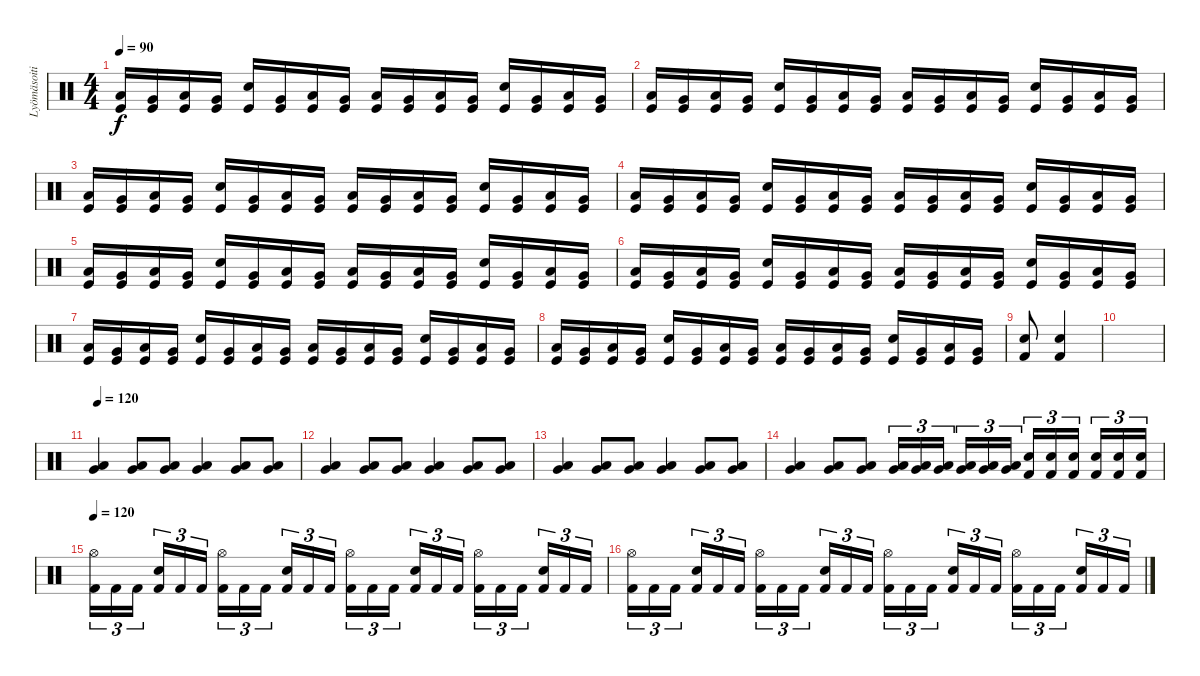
\track ("Lyömäsoitin" "Lyömäsoiti") {instrument percussion}
\staff {score}
\articulation defaults
\ts (4 4)
\tempo 90
\clef neutral
\ks c
("Low Tom (hit)" "Kick (hit)").16{dy f} ("Very Low Tom (hit)" "Kick (hit)").16 ("Low Tom (hit)" "Kick (hit)").16 ("Very Low Tom (hit)" "Kick (hit)").16 ("Electric Snare (hit)" "Kick (hit)").16 ("Very Low Tom (hit)" "Kick (hit)").16 ("Low Tom (hit)" "Kick (hit)").16 ("Very Low Tom (hit)" "Kick (hit)").16 ("Low Tom (hit)" "Kick (hit)").16 ("Very Low Tom (hit)" "Kick (hit)").16 ("Low Tom (hit)" "Kick (hit)").16 ("Very Low Tom (hit)" "Kick (hit)").16 ("Electric Snare (hit)" "Kick (hit)").16 ("Very Low Tom (hit)" "Kick (hit)").16 ("Low Tom (hit)" "Kick (hit)").16 ("Very Low Tom (hit)" "Kick (hit)").16 |
("Low Tom (hit)" "Kick (hit)").16 ("Very Low Tom (hit)" "Kick (hit)").16 ("Low Tom (hit)" "Kick (hit)").16 ("Very Low Tom (hit)" "Kick (hit)").16 ("Electric Snare (hit)" "Kick (hit)").16 ("Very Low Tom (hit)" "Kick (hit)").16 ("Low Tom (hit)" "Kick (hit)").16 ("Very Low Tom (hit)" "Kick (hit)").16 ("Low Tom (hit)" "Kick (hit)").16 ("Very Low Tom (hit)" "Kick (hit)").16 ("Low Tom (hit)" "Kick (hit)").16 ("Very Low Tom (hit)" "Kick (hit)").16 ("Electric Snare (hit)" "Kick (hit)").16 ("Very Low Tom (hit)" "Kick (hit)").16 ("Low Tom (hit)" "Kick (hit)").16 ("Very Low Tom (hit)" "Kick (hit)").16 |
("Low Tom (hit)" "Kick (hit)").16 ("Very Low Tom (hit)" "Kick (hit)").16 ("Low Tom (hit)" "Kick (hit)").16 ("Very Low Tom (hit)" "Kick (hit)").16 ("Electric Snare (hit)" "Kick (hit)").16 ("Very Low Tom (hit)" "Kick (hit)").16 ("Low Tom (hit)" "Kick (hit)").16 ("Very Low Tom (hit)" "Kick (hit)").16 ("Low Tom (hit)" "Kick (hit)").16 ("Very Low Tom (hit)" "Kick (hit)").16 ("Low Tom (hit)" "Kick (hit)").16 ("Very Low Tom (hit)" "Kick (hit)").16 ("Electric Snare (hit)" "Kick (hit)").16 ("Very Low Tom (hit)" "Kick (hit)").16 ("Low Tom (hit)" "Kick (hit)").16 ("Very Low Tom (hit)" "Kick (hit)").16 |
("Low Tom (hit)" "Kick (hit)").16 ("Very Low Tom (hit)" "Kick (hit)").16 ("Low Tom (hit)" "Kick (hit)").16 ("Very Low Tom (hit)" "Kick (hit)").16 ("Electric Snare (hit)" "Kick (hit)").16 ("Very Low Tom (hit)" "Kick (hit)").16 ("Low Tom (hit)" "Kick (hit)").16 ("Very Low Tom (hit)" "Kick (hit)").16 ("Low Tom (hit)" "Kick (hit)").16 ("Very Low Tom (hit)" "Kick (hit)").16 ("Low Tom (hit)" "Kick (hit)").16 ("Very Low Tom (hit)" "Kick (hit)").16 ("Electric Snare (hit)" "Kick (hit)").16 ("Very Low Tom (hit)" "Kick (hit)").16 ("Low Tom (hit)" "Kick (hit)").16 ("Very Low Tom (hit)" "Kick (hit)").16 |
("Low Tom (hit)" "Kick (hit)").16 ("Very Low Tom (hit)" "Kick (hit)").16 ("Low Tom (hit)" "Kick (hit)").16 ("Very Low Tom (hit)" "Kick (hit)").16 ("Electric Snare (hit)" "Kick (hit)").16 ("Very Low Tom (hit)" "Kick (hit)").16 ("Low Tom (hit)" "Kick (hit)").16 ("Very Low Tom (hit)" "Kick (hit)").16 ("Low Tom (hit)" "Kick (hit)").16 ("Very Low Tom (hit)" "Kick (hit)").16 ("Low Tom (hit)" "Kick (hit)").16 ("Very Low Tom (hit)" "Kick (hit)").16 ("Electric Snare (hit)" "Kick (hit)").16 ("Very Low Tom (hit)" "Kick (hit)").16 ("Low Tom (hit)" "Kick (hit)").16 ("Very Low Tom (hit)" "Kick (hit)").16 |
("Low Tom (hit)" "Kick (hit)").16 ("Very Low Tom (hit)" "Kick (hit)").16 ("Low Tom (hit)" "Kick (hit)").16 ("Very Low Tom (hit)" "Kick (hit)").16 ("Electric Snare (hit)" "Kick (hit)").16 ("Very Low Tom (hit)" "Kick (hit)").16 ("Low Tom (hit)" "Kick (hit)").16 ("Very Low Tom (hit)" "Kick (hit)").16 ("Low Tom (hit)" "Kick (hit)").16 ("Very Low Tom (hit)" "Kick (hit)").16 ("Low Tom (hit)" "Kick (hit)").16 ("Very Low Tom (hit)" "Kick (hit)").16 ("Electric Snare (hit)" "Kick (hit)").16 ("Very Low Tom (hit)" "Kick (hit)").16 ("Low Tom (hit)" "Kick (hit)").16 ("Very Low Tom (hit)" "Kick (hit)").16 |
("Low Tom (hit)" "Kick (hit)").16 ("Very Low Tom (hit)" "Kick (hit)").16 ("Low Tom (hit)" "Kick (hit)").16 ("Very Low Tom (hit)" "Kick (hit)").16 ("Electric Snare (hit)" "Kick (hit)").16 ("Very Low Tom (hit)" "Kick (hit)").16 ("Low Tom (hit)" "Kick (hit)").16 ("Very Low Tom (hit)" "Kick (hit)").16 ("Low Tom (hit)" "Kick (hit)").16 ("Very Low Tom (hit)" "Kick (hit)").16 ("Low Tom (hit)" "Kick (hit)").16 ("Very Low Tom (hit)" "Kick (hit)").16 ("Electric Snare (hit)" "Kick (hit)").16 ("Very Low Tom (hit)" "Kick (hit)").16 ("Low Tom (hit)" "Kick (hit)").16 ("Very Low Tom (hit)" "Kick (hit)").16 |
("Low Tom (hit)" "Kick (hit)").16 ("Very Low Tom (hit)" "Kick (hit)").16 ("Low Tom (hit)" "Kick (hit)").16 ("Very Low Tom (hit)" "Kick (hit)").16 ("Electric Snare (hit)" "Kick (hit)").16 ("Very Low Tom (hit)" "Kick (hit)").16 ("Low Tom (hit)" "Kick (hit)").16 ("Very Low Tom (hit)" "Kick (hit)").16 ("Low Tom (hit)" "Kick (hit)").16 ("Very Low Tom (hit)" "Kick (hit)").16 ("Low Tom (hit)" "Kick (hit)").16 ("Very Low Tom (hit)" "Kick (hit)").16 ("Electric Snare (hit)" "Kick (hit)").16 ("Very Low Tom (hit)" "Kick (hit)").16 ("Low Tom (hit)" "Kick (hit)").16 ("Very Low Tom (hit)" "Kick (hit)").16 |
("Electric Snare (hit)" "Kick (hit) 2").8 ("Electric Snare (hit)" "Kick (hit) 2").4 |
|
\tempo 120
("Low Tom (hit)" "Very Low Tom (hit)").4{volume 16} ("Low Tom (hit)" "Very Low Tom (hit)").8 ("Low Tom (hit)" "Very Low Tom (hit)").8 ("Low Tom (hit)" "Very Low Tom (hit)").4 ("Low Tom (hit)" "Very Low Tom (hit)").8 ("Low Tom (hit)" "Very Low Tom (hit)").8 |
("Low Tom (hit)" "Very Low Tom (hit)").4 ("Low Tom (hit)" "Very Low Tom (hit)").8 ("Low Tom (hit)" "Very Low Tom (hit)").8 ("Low Tom (hit)" "Very Low Tom (hit)").4 ("Low Tom (hit)" "Very Low Tom (hit)").8 ("Low Tom (hit)" "Very Low Tom (hit)").8 |
("Low Tom (hit)" "Very Low Tom (hit)").4 ("Low Tom (hit)" "Very Low Tom (hit)").8 ("Low Tom (hit)" "Very Low Tom (hit)").8 ("Low Tom (hit)" "Very Low Tom (hit)").4 ("Low Tom (hit)" "Very Low Tom (hit)").8 ("Low Tom (hit)" "Very Low Tom (hit)").8 |
("Low Tom (hit)" "Very Low Tom (hit)").4 ("Low Tom (hit)" "Very Low Tom (hit)").8 ("Low Tom (hit)" "Very Low Tom (hit)").8 ("Low Tom (hit)" "Very Low Tom (hit)").16{tu (3 2)} ("Low Tom (hit)" "Very Low Tom (hit)").16{tu (3 2)} ("Low Tom (hit)" "Very Low Tom (hit)").16{tu (3 2) beam splitsecondary} ("Low Tom (hit)" "Very Low Tom (hit)").16{tu (3 2)} ("Low Tom (hit)" "Very Low Tom (hit)").16{tu (3 2)} ("Low Tom (hit)" "Very Low Tom (hit)").16{tu (3 2)} ("Electric Snare (hit)" "Kick (hit) 2").16{tu (3 2)} ("Electric Snare (hit)" "Kick (hit) 2").16{tu (3 2)} ("Electric Snare (hit)" "Kick (hit) 2").16{tu (3 2) beam splitsecondary} ("Electric Snare (hit)" "Kick (hit) 2").16{tu (3 2)} ("Electric Snare (hit)" "Kick (hit) 2").16{tu (3 2)} ("Electric Snare (hit)" "Kick (hit) 2").16{tu (3 2)} |
\tempo 120
("Hi-Hat (open)" "Kick (hit) 2").16{tu (3 2)} "Kick (hit) 2".16{tu (3 2)} "Kick (hit) 2".16{tu (3 2) beam splitsecondary} ("Electric Snare (hit)" "Kick (hit) 2").16{tu (3 2)} "Kick (hit) 2".16{tu (3 2)} "Kick (hit) 2".16{tu (3 2)} ("Hi-Hat (open)" "Kick (hit) 2").16{tu (3 2)} "Kick (hit) 2".16{tu (3 2)} "Kick (hit) 2".16{tu (3 2) beam splitsecondary} ("Electric Snare (hit)" "Kick (hit) 2").16{tu (3 2)} "Kick (hit) 2".16{tu (3 2)} "Kick (hit) 2".16{tu (3 2)} ("Hi-Hat (open)" "Kick (hit) 2").16{tu (3 2)} "Kick (hit) 2".16{tu (3 2)} "Kick (hit) 2".16{tu (3 2) beam splitsecondary} ("Electric Snare (hit)" "Kick (hit) 2").16{tu (3 2)} "Kick (hit) 2".16{tu (3 2)} "Kick (hit) 2".16{tu (3 2)} ("Hi-Hat (open)" "Kick (hit) 2").16{tu (3 2)} "Kick (hit) 2".16{tu (3 2)} "Kick (hit) 2".16{tu (3 2) beam splitsecondary} ("Electric Snare (hit)" "Kick (hit) 2").16{tu (3 2)} "Kick (hit) 2".16{tu (3 2)} "Kick (hit) 2".16{tu (3 2)} |
("Hi-Hat (open)" "Kick (hit) 2").16{tu (3 2)} "Kick (hit) 2".16{tu (3 2)} "Kick (hit) 2".16{tu (3 2) beam splitsecondary} ("Electric Snare (hit)" "Kick (hit) 2").16{tu (3 2)} "Kick (hit) 2".16{tu (3 2)} "Kick (hit) 2".16{tu (3 2)} ("Hi-Hat (open)" "Kick (hit) 2").16{tu (3 2)} "Kick (hit) 2".16{tu (3 2)} "Kick (hit) 2".16{tu (3 2) beam splitsecondary} ("Electric Snare (hit)" "Kick (hit) 2").16{tu (3 2)} "Kick (hit) 2".16{tu (3 2)} "Kick (hit) 2".16{tu (3 2)} ("Hi-Hat (open)" "Kick (hit) 2").16{tu (3 2)} "Kick (hit) 2".16{tu (3 2)} "Kick (hit) 2".16{tu (3 2) beam splitsecondary} ("Electric Snare (hit)" "Kick (hit) 2").16{tu (3 2)} "Kick (hit) 2".16{tu (3 2)} "Kick (hit) 2".16{tu (3 2)} ("Hi-Hat (open)" "Kick (hit) 2").16{tu (3 2)} "Kick (hit) 2".16{tu (3 2)} "Kick (hit) 2".16{tu (3 2) beam splitsecondary} ("Electric Snare (hit)" "Kick (hit) 2").16{tu (3 2)} "Kick (hit) 2".16{tu (3 2)} "Kick (hit) 2".16{tu (3 2)}
